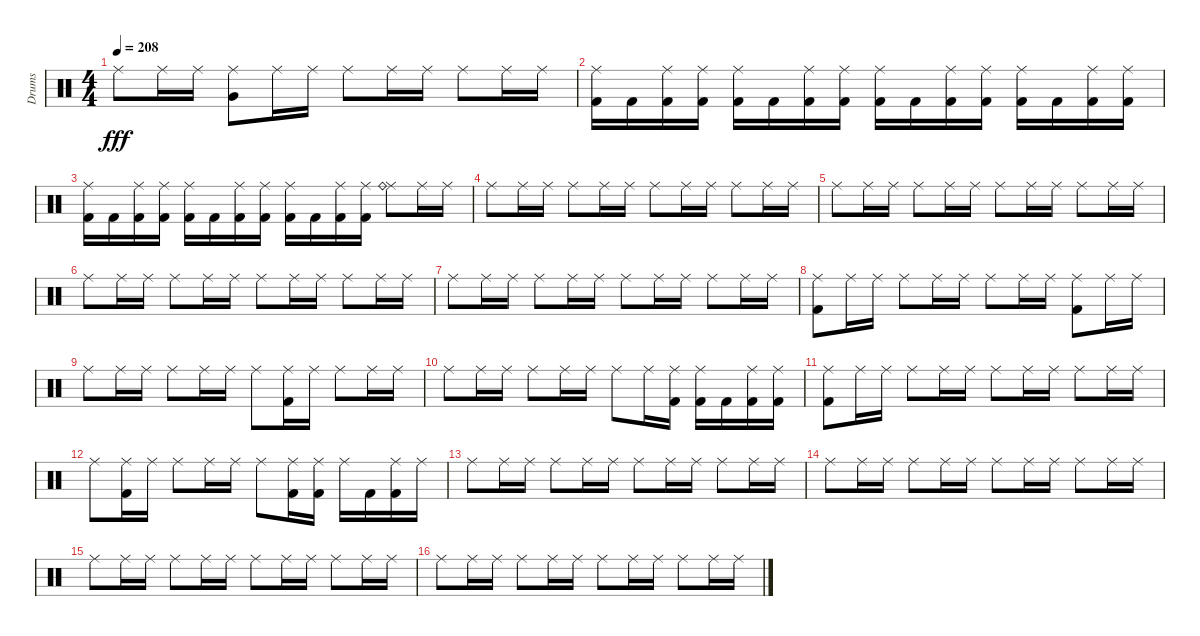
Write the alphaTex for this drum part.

\track ("Drums" "Drums") {instrument percussion}
\staff {score}
\articulation defaults
\ts (4 4)
\tempo 208
\clef neutral
\ks c "Ride (middle)".8{dy fff} "Ride (middle)".16 "Ride (middle)".16
("Ride (middle)" "Very Low Tom (hit)").8 "Ride (middle)".16 "Ride (middle)".16 "Ride (middle)".8 "Ride (middle)".16 "Ride (middle)".16 "Ride (middle)".8 "Ride (middle)".16 "Ride (middle)".16 |
("Ride (middle)" "Kick (hit) 2").16 "Kick (hit) 2".16 ("Ride (middle)" "Kick (hit) 2").16 ("Ride (middle)" "Kick (hit) 2").16 ("Ride (middle)" "Kick (hit) 2").16 "Kick (hit) 2".16 ("Ride (middle)" "Kick (hit) 2").16 ("Ride (middle)" "Kick (hit) 2").16 ("Ride (middle)" "Kick (hit) 2").16 "Kick (hit) 2".16 ("Ride (middle)" "Kick (hit) 2").16 ("Ride (middle)" "Kick (hit) 2").16 ("Ride (middle)" "Kick (hit) 2").16 "Kick (hit) 2".16 ("Ride (middle)" "Kick (hit) 2").16 ("Ride (middle)" "Kick (hit) 2").16 |
("Ride (middle)" "Kick (hit) 2").16 "Kick (hit) 2".16 ("Ride (middle)" "Kick (hit) 2").16 ("Ride (middle)" "Kick (hit) 2").16 ("Ride (middle)" "Kick (hit) 2").16 "Kick (hit) 2".16 ("Ride (middle)" "Kick (hit) 2").16 ("Ride (middle)" "Kick (hit) 2").16 ("Ride (middle)" "Kick (hit) 2").16 "Kick (hit) 2".16 ("Ride (middle)" "Kick (hit) 2").16 ("Ride (middle)" "Kick (hit) 2").16 ("Ride (middle)" "Ride (bell)").8 "Ride (middle)".16 "Ride (middle)".16 |
"Ride (middle)".8 "Ride (middle)".16 "Ride (middle)".16 "Ride (middle)".8 "Ride (middle)".16 "Ride (middle)".16 "Ride (middle)".8 "Ride (middle)".16 "Ride (middle)".16 "Ride (middle)".8 "Ride (middle)".16 "Ride (middle)".16 |
"Ride (middle)".8 "Ride (middle)".16 "Ride (middle)".16 "Ride (middle)".8 "Ride (middle)".16 "Ride (middle)".16 "Ride (middle)".8 "Ride (middle)".16 "Ride (middle)".16 "Ride (middle)".8 "Ride (middle)".16 "Ride (middle)".16 |
"Ride (middle)".8 "Ride (middle)".16 "Ride (middle)".16 "Ride (middle)".8 "Ride (middle)".16 "Ride (middle)".16 "Ride (middle)".8 "Ride (middle)".16 "Ride (middle)".16 "Ride (middle)".8 "Ride (middle)".16 "Ride (middle)".16 |
"Ride (middle)".8 "Ride (middle)".16 "Ride (middle)".16 "Ride (middle)".8 "Ride (middle)".16 "Ride (middle)".16 "Ride (middle)".8 "Ride (middle)".16 "Ride (middle)".16 "Ride (middle)".8 "Ride (middle)".16 "Ride (middle)".16 |
("Ride (middle)" "Kick (hit) 2").8 "Ride (middle)".16 "Ride (middle)".16 "Ride (middle)".8 "Ride (middle)".16 "Ride (middle)".16 "Ride (middle)".8 "Ride (middle)".16 "Ride (middle)".16 ("Ride (middle)" "Kick (hit) 2").8 "Ride (middle)".16 "Ride (middle)".16 |
"Ride (middle)".8 "Ride (middle)".16 "Ride (middle)".16 "Ride (middle)".8 "Ride (middle)".16 "Ride (middle)".16 "Ride (middle)".8 ("Ride (middle)" "Kick (hit) 2").16 "Ride (middle)".16 "Ride (middle)".8 "Ride (middle)".16 "Ride (middle)".16 |
"Ride (middle)".8 "Ride (middle)".16 "Ride (middle)".16 "Ride (middle)".8 "Ride (middle)".16 "Ride (middle)".16 "Ride (middle)".8 "Ride (middle)".16 ("Ride (middle)" "Kick (hit) 2").16 ("Ride (middle)" "Kick (hit) 2").16 "Kick (hit) 2".16 ("Ride (middle)" "Kick (hit) 2").16 ("Ride (middle)" "Kick (hit) 2").16 |
("Ride (middle)" "Kick (hit) 2").8 "Ride (middle)".16 "Ride (middle)".16 "Ride (middle)".8 "Ride (middle)".16 "Ride (middle)".16 "Ride (middle)".8 "Ride (middle)".16 "Ride (middle)".16 "Ride (middle)".8 "Ride (middle)".16 "Ride (middle)".16 |
"Ride (middle)".8 ("Ride (middle)" "Kick (hit) 2").16 "Ride (middle)".16 "Ride (middle)".8 "Ride (middle)".16 "Ride (middle)".16 "Ride (middle)".8 ("Ride (middle)" "Kick (hit) 2").16 ("Ride (middle)" "Kick (hit) 2").16 "Ride (middle)".16 "Kick (hit) 2".16 ("Ride (middle)" "Kick (hit) 2").16 "Ride (middle)".16 |
"Ride (middle)".8 "Ride (middle)".16 "Ride (middle)".16 "Ride (middle)".8 "Ride (middle)".16 "Ride (middle)".16 "Ride (middle)".8 "Ride (middle)".16 "Ride (middle)".16 "Ride (middle)".8 "Ride (middle)".16 "Ride (middle)".16 |
"Ride (middle)".8 "Ride (middle)".16 "Ride (middle)".16 "Ride (middle)".8 "Ride (middle)".16 "Ride (middle)".16 "Ride (middle)".8 "Ride (middle)".16 "Ride (middle)".16 "Ride (middle)".8 "Ride (middle)".16 "Ride (middle)".16 |
"Ride (middle)".8 "Ride (middle)".16 "Ride (middle)".16 "Ride (middle)".8 "Ride (middle)".16 "Ride (middle)".16 "Ride (middle)".8 "Ride (middle)".16 "Ride (middle)".16 "Ride (middle)".8 "Ride (middle)".16 "Ride (middle)".16 |
"Ride (middle)".8 "Ride (middle)".16 "Ride (middle)".16 "Ride (middle)".8 "Ride (middle)".16 "Ride (middle)".16 "Ride (middle)".8 "Ride (middle)".16 "Ride (middle)".16 "Ride (middle)".8 "Ride (middle)".16 "Ride (middle)".16
